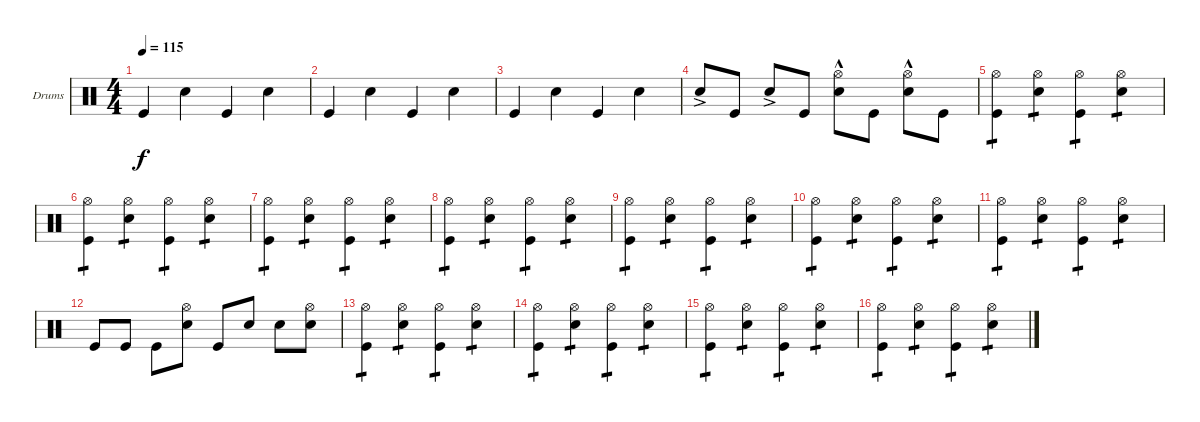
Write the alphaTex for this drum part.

\bracketExtendMode groupsimilarinstruments
\firstSystemTrackNameOrientation horizontal
\otherSystemsTrackNameOrientation horizontal
\track ("Drumkit" "Drums") {instrument percussion}
\staff {score}
\articulation defaults
\ts (4 4)
\tempo 115
\clef neutral
\scale
0.333333
\ks c "Kick (hit)".4{dy f} "Snare (hit) 2".4 "Kick (hit)".4 "Snare (hit) 2".4
|
\scale
0.333333 "Kick (hit)".4 "Snare (hit) 2".4 "Kick (hit)".4 "Snare (hit) 2".4 |
\scale
0.333333 "Kick (hit)".4 "Snare (hit) 2".4 "Kick (hit)".4 "Snare (hit) 2".4 |
\scale
0.333333 "Snare (hit) 2"{ac}.8 "Kick (hit)".8 "Snare (hit) 2"{ac}.8 "Kick (hit)".8 ("Snare (hit) 2"{hac} "Hi-Hat (open)").8 "Kick (hit)".8 ("Snare (hit) 2"{hac} "Hi-Hat (open)").8 "Kick (hit)".8 |
\scale
0.333333 ("Kick (hit)" "Hi-Hat (open)").4{tp 1} ("Snare (hit) 2" "Hi-Hat (open)").4{tp 1} ("Kick (hit)" "Hi-Hat (open)").4{tp 1} ("Snare (hit) 2" "Hi-Hat (open)").4{tp 1} |
\scale
0.333333 ("Kick (hit)" "Hi-Hat (open)").4{tp 1} ("Snare (hit) 2" "Hi-Hat (open)").4{tp 1} ("Kick (hit)" "Hi-Hat (open)").4{tp 1} ("Snare (hit) 2" "Hi-Hat (open)").4{tp 1} |
\scale
0.333333 ("Kick (hit)" "Hi-Hat (open)").4{tp 1} ("Snare (hit) 2" "Hi-Hat (open)").4{tp 1} ("Kick (hit)" "Hi-Hat (open)").4{tp 1} ("Snare (hit) 2" "Hi-Hat (open)").4{tp 1} |
\scale
0.333333 ("Kick (hit)" "Hi-Hat (open)").4{tp 1} ("Snare (hit) 2" "Hi-Hat (open)").4{tp 1} ("Kick (hit)" "Hi-Hat (open)").4{tp 1} ("Snare (hit) 2" "Hi-Hat (open)").4{tp 1} |
\scale
0.333333 ("Kick (hit)" "Hi-Hat (open)").4{tp 1} ("Snare (hit) 2" "Hi-Hat (open)").4{tp 1} ("Kick (hit)" "Hi-Hat (open)").4{tp 1} ("Snare (hit) 2" "Hi-Hat (open)").4{tp 1} |
\scale
0.333333 ("Kick (hit)" "Hi-Hat (open)").4{tp 1} ("Snare (hit) 2" "Hi-Hat (open)").4{tp 1} ("Kick (hit)" "Hi-Hat (open)").4{tp 1} ("Snare (hit) 2" "Hi-Hat (open)").4{tp 1} |
\scale
0.333333 ("Kick (hit)" "Hi-Hat (open)").4{tp 1} ("Snare (hit) 2" "Hi-Hat (open)").4{tp 1} ("Kick (hit)" "Hi-Hat (open)").4{tp 1} ("Snare (hit) 2" "Hi-Hat (open)").4{tp 1} |
\scale
0.333333 "Kick (hit)".8 "Kick (hit)".8 "Kick (hit)".8 ("Snare (hit) 2" "Hi-Hat (open)").8 "Kick (hit)".8 "Snare (hit) 2".8 "Snare (hit) 2".8 ("Snare (hit) 2" "Hi-Hat (open)").8 |
\scale
0.333333 ("Kick (hit)" "Hi-Hat (open)").4{tp 1} ("Snare (hit) 2" "Hi-Hat (open)").4{tp 1} ("Kick (hit)" "Hi-Hat (open)").4{tp 1} ("Snare (hit) 2" "Hi-Hat (open)").4{tp 1} |
\scale
0.333333 ("Kick (hit)" "Hi-Hat (open)").4{tp 1} ("Snare (hit) 2" "Hi-Hat (open)").4{tp 1} ("Kick (hit)" "Hi-Hat (open)").4{tp 1} ("Snare (hit) 2" "Hi-Hat (open)").4{tp 1} |
\scale
0.333333 ("Kick (hit)" "Hi-Hat (open)").4{tp 1} ("Snare (hit) 2" "Hi-Hat (open)").4{tp 1} ("Kick (hit)" "Hi-Hat (open)").4{tp 1} ("Snare (hit) 2" "Hi-Hat (open)").4{tp 1} |
\scale
0.333333 ("Kick (hit)" "Hi-Hat (open)").4{tp 1} ("Snare (hit) 2" "Hi-Hat (open)").4{tp 1} ("Kick (hit)" "Hi-Hat (open)").4{tp 1} ("Snare (hit) 2" "Hi-Hat (open)").4{tp 1}
